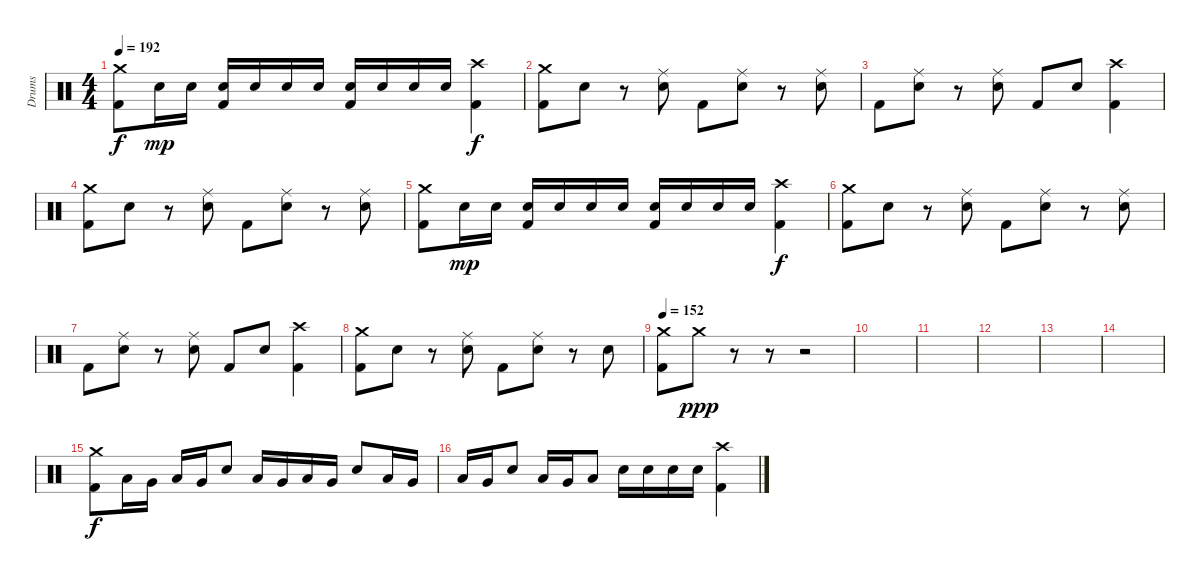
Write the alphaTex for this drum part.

\track ("Drums" "Drums") {instrument percussion}
\staff
\articulation defaults
\ts (4 4)
\tempo 192
\clef neutral
\ks c
("Crash medium (hit)" "Kick (hit) 2").8{dy f} "Snare (hit) 2".16{dy mp} "Snare (hit) 2".16 ("Snare (hit) 2" "Kick (hit) 2").16 "Snare (hit) 2".16 "Snare (hit) 2".16 "Snare (hit) 2".16 ("Snare (hit) 2" "Kick (hit) 2").16 "Snare (hit) 2".16 "Snare (hit) 2".16 "Snare (hit) 2".16 ("Crash high (hit)" "Kick (hit) 2").4{dy f} |
("Crash medium (hit)" "Kick (hit) 2").8 "Snare (hit) 2".8 r.8 ("Ride (middle)" "Snare (hit) 2").8 "Kick (hit) 2".8 ("Ride (middle)" "Snare (hit) 2").8 r.8 ("Ride (middle)" "Snare (hit) 2").8 |
"Kick (hit) 2".8 ("Ride (middle)" "Snare (hit) 2").8 r.8 ("Ride (middle)" "Snare (hit) 2").8 "Kick (hit) 2".8 "Snare (hit) 2".8 ("Crash high (hit)" "Kick (hit) 2").4 |
("Crash medium (hit)" "Kick (hit) 2").8 "Snare (hit) 2".8 r.8 ("Ride (middle)" "Snare (hit) 2").8 "Kick (hit) 2".8 ("Ride (middle)" "Snare (hit) 2").8 r.8 ("Ride (middle)" "Snare (hit) 2").8 |
("Crash medium (hit)" "Kick (hit) 2").8 "Snare (hit) 2".16{dy mp} "Snare (hit) 2".16 ("Snare (hit) 2" "Kick (hit) 2").16 "Snare (hit) 2".16 "Snare (hit) 2".16 "Snare (hit) 2".16 ("Snare (hit) 2" "Kick (hit) 2").16 "Snare (hit) 2".16 "Snare (hit) 2".16 "Snare (hit) 2".16 ("Crash high (hit)" "Kick (hit) 2").4{dy f} |
("Crash medium (hit)" "Kick (hit) 2").8 "Snare (hit) 2".8 r.8 ("Ride (middle)" "Snare (hit) 2").8 "Kick (hit) 2".8 ("Ride (middle)" "Snare (hit) 2").8 r.8 ("Ride (middle)" "Snare (hit) 2").8 |
"Kick (hit) 2".8 ("Ride (middle)" "Snare (hit) 2").8 r.8 ("Ride (middle)" "Snare (hit) 2").8 "Kick (hit) 2".8 "Snare (hit) 2".8 ("Crash high (hit)" "Kick (hit) 2").4 |
("Crash medium (hit)" "Kick (hit) 2").8 "Snare (hit) 2".8 r.8 ("Ride (middle)" "Snare (hit) 2").8 "Kick (hit) 2".8 ("Ride (middle)" "Snare (hit) 2").8 r.8 "Snare (hit) 2".8 |
\tempo 152
("Crash medium (hit)" "Kick (hit) 2").8 "Crash medium (hit)".8{dy ppp} r.8 r.8 r.2 |
|
|
|
|
|
("Crash medium (hit)" "Kick (hit) 2").8{dy f} "Low Floor Tom (hit)".16 "Very Low Tom (hit)".16 "Low Floor Tom (hit)".16 "Very Low Tom (hit)".16 "Snare (hit) 2".8 "Low Floor Tom (hit)".16 "Very Low Tom (hit)".16 "Low Floor Tom (hit)".16 "Very Low Tom (hit)".16 "Snare (hit) 2".8 "Low Floor Tom (hit)".16 "Very Low Tom (hit)".16 |
"Low Floor Tom (hit)".16 "Very Low Tom (hit)".16 "Snare (hit) 2".8 "Low Floor Tom (hit)".16 "Very Low Tom (hit)".16 "Low Floor Tom (hit)".8 "Snare (hit) 2".16 "Snare (hit) 2".16 "Snare (hit) 2".16 "Snare (hit) 2".16 ("Crash high (hit)" "Kick (hit) 2").4
